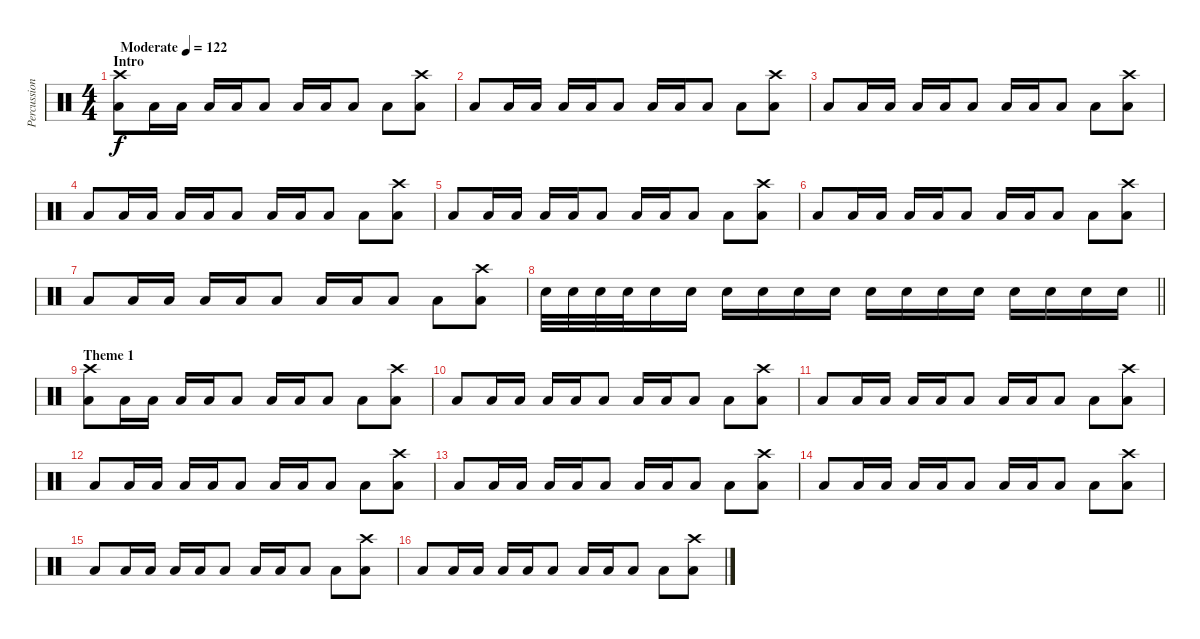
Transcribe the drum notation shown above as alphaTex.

\track ("Percussion" "Percussion") {instrument percussion}
\staff {score}
\articulation defaults
\ts (4 4)
\section ("" "Intro")
\tempo (122 "Moderate")
\clef neutral
\ks c
("Low Tom (hit)" "Crash high (hit)").8{dy f} "Low Tom (hit)".16 "Low Tom (hit)".16 "Low Tom (hit)".16 "Low Tom (hit)".16 "Low Tom (hit)".8 "Low Tom (hit)".16 "Low Tom (hit)".16 "Low Tom (hit)".8 "Low Tom (hit)".8 ("Low Tom (hit)" "Crash high (hit)").8 |
"Low Tom (hit)".8 "Low Tom (hit)".16 "Low Tom (hit)".16 "Low Tom (hit)".16 "Low Tom (hit)".16 "Low Tom (hit)".8 "Low Tom (hit)".16 "Low Tom (hit)".16 "Low Tom (hit)".8 "Low Tom (hit)".8 ("Low Tom (hit)" "Crash high (hit)").8 |
"Low Tom (hit)".8 "Low Tom (hit)".16 "Low Tom (hit)".16 "Low Tom (hit)".16 "Low Tom (hit)".16 "Low Tom (hit)".8 "Low Tom (hit)".16 "Low Tom (hit)".16 "Low Tom (hit)".8 "Low Tom (hit)".8 ("Low Tom (hit)" "Crash high (hit)").8 |
"Low Tom (hit)".8 "Low Tom (hit)".16 "Low Tom (hit)".16 "Low Tom (hit)".16 "Low Tom (hit)".16 "Low Tom (hit)".8 "Low Tom (hit)".16 "Low Tom (hit)".16 "Low Tom (hit)".8 "Low Tom (hit)".8 ("Low Tom (hit)" "Crash high (hit)").8 |
"Low Tom (hit)".8 "Low Tom (hit)".16 "Low Tom (hit)".16 "Low Tom (hit)".16 "Low Tom (hit)".16 "Low Tom (hit)".8 "Low Tom (hit)".16 "Low Tom (hit)".16 "Low Tom (hit)".8 "Low Tom (hit)".8 ("Low Tom (hit)" "Crash high (hit)").8 |
"Low Tom (hit)".8 "Low Tom (hit)".16 "Low Tom (hit)".16 "Low Tom (hit)".16 "Low Tom (hit)".16 "Low Tom (hit)".8 "Low Tom (hit)".16 "Low Tom (hit)".16 "Low Tom (hit)".8 "Low Tom (hit)".8 ("Low Tom (hit)" "Crash high (hit)").8 |
"Low Tom (hit)".8 "Low Tom (hit)".16 "Low Tom (hit)".16 "Low Tom (hit)".16 "Low Tom (hit)".16 "Low Tom (hit)".8 "Low Tom (hit)".16 "Low Tom (hit)".16 "Low Tom (hit)".8 "Low Tom (hit)".8 ("Low Tom (hit)" "Crash high (hit)").8 |
\barLineRight lightlight "Electric Snare (hit)".32 "Electric Snare (hit)".32 "Electric Snare (hit)".32 "Electric Snare (hit)".32 "Electric Snare (hit)".16 "Electric Snare (hit)".16 "Electric Snare (hit)".16 "Electric Snare (hit)".16 "Electric Snare (hit)".16 "Electric Snare (hit)".16 "Electric Snare (hit)".16 "Electric Snare (hit)".16 "Electric Snare (hit)".16 "Electric Snare (hit)".16 "Electric Snare (hit)".16 "Electric Snare (hit)".16 "Electric Snare (hit)".16 "Electric Snare (hit)".16
|
\section ("" "Theme 1")
("Low Tom (hit)" "Crash high (hit)").8 "Low Tom (hit)".16 "Low Tom (hit)".16 "Low Tom (hit)".16 "Low Tom (hit)".16 "Low Tom (hit)".8 "Low Tom (hit)".16 "Low Tom (hit)".16 "Low Tom (hit)".8 "Low Tom (hit)".8 ("Low Tom (hit)" "Crash high (hit)").8 |
"Low Tom (hit)".8 "Low Tom (hit)".16 "Low Tom (hit)".16 "Low Tom (hit)".16 "Low Tom (hit)".16 "Low Tom (hit)".8 "Low Tom (hit)".16 "Low Tom (hit)".16 "Low Tom (hit)".8 "Low Tom (hit)".8 ("Low Tom (hit)" "Crash high (hit)").8 |
"Low Tom (hit)".8 "Low Tom (hit)".16 "Low Tom (hit)".16 "Low Tom (hit)".16 "Low Tom (hit)".16 "Low Tom (hit)".8 "Low Tom (hit)".16 "Low Tom (hit)".16 "Low Tom (hit)".8 "Low Tom (hit)".8 ("Low Tom (hit)" "Crash high (hit)").8 |
"Low Tom (hit)".8 "Low Tom (hit)".16 "Low Tom (hit)".16 "Low Tom (hit)".16 "Low Tom (hit)".16 "Low Tom (hit)".8 "Low Tom (hit)".16 "Low Tom (hit)".16 "Low Tom (hit)".8 "Low Tom (hit)".8 ("Low Tom (hit)" "Crash high (hit)").8 |
"Low Tom (hit)".8 "Low Tom (hit)".16 "Low Tom (hit)".16 "Low Tom (hit)".16 "Low Tom (hit)".16 "Low Tom (hit)".8 "Low Tom (hit)".16 "Low Tom (hit)".16 "Low Tom (hit)".8 "Low Tom (hit)".8 ("Low Tom (hit)" "Crash high (hit)").8 |
"Low Tom (hit)".8 "Low Tom (hit)".16 "Low Tom (hit)".16 "Low Tom (hit)".16 "Low Tom (hit)".16 "Low Tom (hit)".8 "Low Tom (hit)".16 "Low Tom (hit)".16 "Low Tom (hit)".8 "Low Tom (hit)".8 ("Low Tom (hit)" "Crash high (hit)").8 |
"Low Tom (hit)".8 "Low Tom (hit)".16 "Low Tom (hit)".16 "Low Tom (hit)".16 "Low Tom (hit)".16 "Low Tom (hit)".8 "Low Tom (hit)".16 "Low Tom (hit)".16 "Low Tom (hit)".8 "Low Tom (hit)".8 ("Low Tom (hit)" "Crash high (hit)").8 |
"Low Tom (hit)".8 "Low Tom (hit)".16 "Low Tom (hit)".16 "Low Tom (hit)".16 "Low Tom (hit)".16 "Low Tom (hit)".8 "Low Tom (hit)".16 "Low Tom (hit)".16 "Low Tom (hit)".8 "Low Tom (hit)".8 ("Low Tom (hit)" "Crash high (hit)").8
